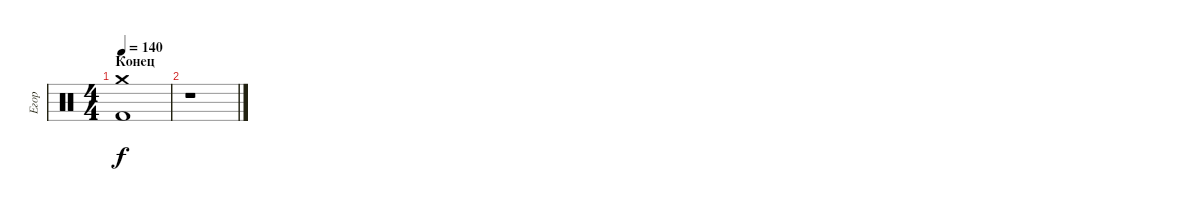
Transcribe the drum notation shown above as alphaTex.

\track ("Егор" "Егор") {instrument percussion}
\staff {score}
\articulation defaults
\ts (4 4)
\section ("" "Конец")
\tempo 140
\clef neutral
\ks c
("Kick (hit) 2" "Crash medium (hit)").1{dy f} |
r.1
